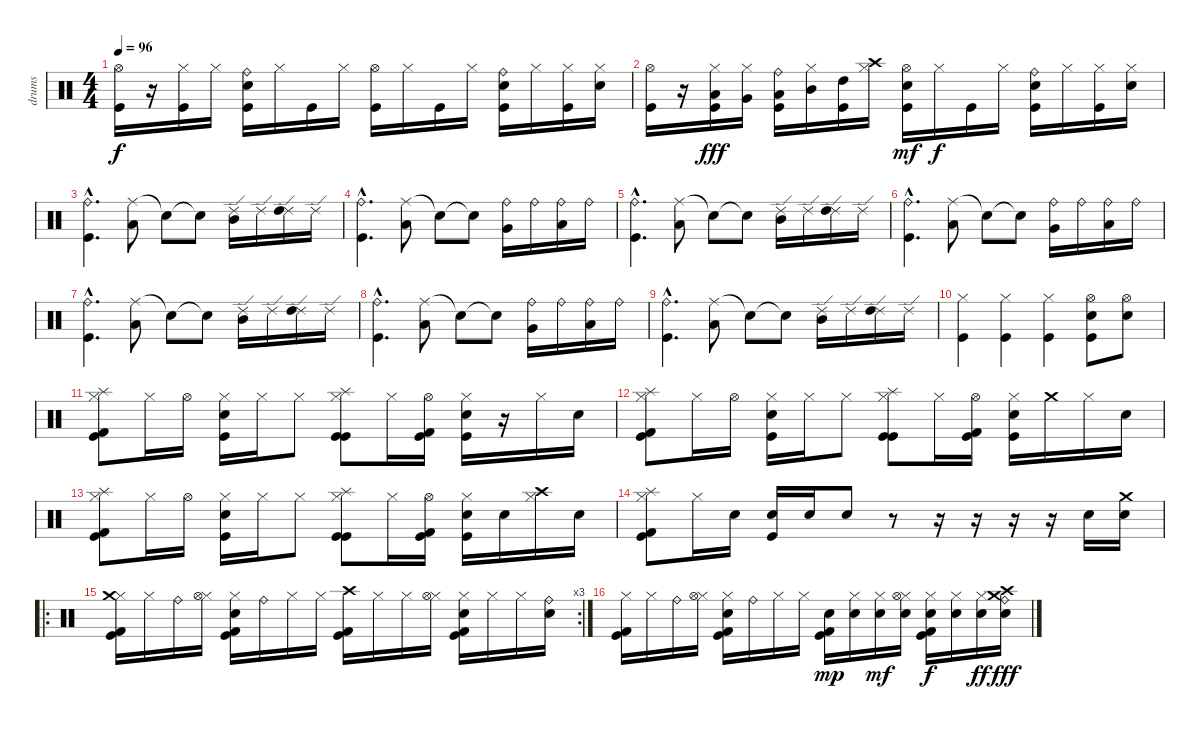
\track ("drums" "drums") {instrument percussion}
\staff {score}
\articulation defaults
\ts (4 4)
\tempo 96
\clef neutral
\ks c
("Hi-Hat (open)" "Kick (hit)").16{dy f} r.16 ("Hi-Hat (closed)" "Kick (hit)").16 "Hi-Hat (closed)".16 ("Ride (bell)" "Electric Snare (hit)" "Kick (hit)").16 "Hi-Hat (closed)".16 "Kick (hit)".16 "Hi-Hat (closed)".16 ("Hi-Hat (open)" "Kick (hit)").16 "Hi-Hat (closed)".16 "Kick (hit)".16 "Hi-Hat (closed)".16 ("Ride (bell)" "Electric Snare (hit)" "Kick (hit)").16 "Hi-Hat (closed)".16 ("Hi-Hat (closed)" "Kick (hit)").16 ("Hi-Hat (closed)" "Electric Snare (hit)").16 |
("Hi-Hat (open)" "Kick (hit)").16 r.16 ("Hi-Hat (closed)" "Low Floor Tom (hit)" "Kick (hit)").16{dy fff} ("Hi-Hat (closed)" "Very Low Tom (hit)").16 ("Ride (bell)" "Low Tom (hit)" "Kick (hit)").16 ("Hi-Hat (closed)" "Mid Tom (hit)").16 ("High Tom (hit)" "Kick (hit)").16 ("Hi-Hat (closed)" "Crash high (hit)").16 ("Hi-Hat (open)" "Electric Snare (hit)" "Kick (hit)").16{dy mf} "Hi-Hat (closed)".16{dy f} "Kick (hit)".16 "Hi-Hat (closed)".16 ("Ride (bell)" "Electric Snare (hit)" "Kick (hit)").16 "Hi-Hat (closed)".16 ("Hi-Hat (closed)" "Kick (hit)").16 ("Hi-Hat (closed)" "Electric Snare (hit)").16 |
("Ride (bell)"{hac} "Kick (hit)"{hac}).4{d} ("Ride (middle)" "Low Tom (hit)").8 "Snare (hit)"{t}.8 "Snare (hit)"{t}.8 ("Ride (edge) 2" "Mid Tom (hit)").16 "Ride (edge) 2".16 ("Ride (edge) 2" "High Tom (hit)").16 "Ride (edge) 2".16 |
("Ride (bell)"{hac} "Kick (hit)"{hac}).4{d} ("Ride (middle)" "Low Floor Tom (hit)").8 "Snare (hit)"{t}.8 "Snare (hit)"{t}.8 ("Ride (bell)" "Very Low Tom (hit)").16 "Ride (bell)".16 ("Ride (bell)" "Low Tom (hit)").16 "Ride (bell)".16 |
("Ride (bell)"{hac} "Kick (hit)"{hac}).4{d} ("Ride (middle)" "Low Tom (hit)").8 "Snare (hit)"{t}.8 "Snare (hit)"{t}.8 ("Ride (edge) 2" "Mid Tom (hit)").16 "Ride (edge) 2".16 ("Ride (edge) 2" "High Tom (hit)").16 "Ride (edge) 2".16 |
("Ride (bell)"{hac} "Kick (hit)"{hac}).4{d} ("Ride (middle)" "Low Floor Tom (hit)").8 "Snare (hit)"{t}.8 "Snare (hit)"{t}.8 ("Ride (bell)" "Very Low Tom (hit)").16 "Ride (bell)".16 ("Ride (bell)" "Low Tom (hit)").16 "Ride (bell)".16 |
("Ride (bell)"{hac} "Kick (hit)"{hac}).4{d} ("Ride (middle)" "Low Tom (hit)").8 "Snare (hit)"{t}.8 "Snare (hit)"{t}.8 ("Ride (edge) 2" "Mid Tom (hit)").16 "Ride (edge) 2".16 ("Ride (edge) 2" "High Tom (hit)").16 "Ride (edge) 2".16 |
("Ride (bell)"{hac} "Kick (hit)"{hac}).4{d} ("Ride (middle)" "Low Floor Tom (hit)").8 "Snare (hit)"{t}.8 "Snare (hit)"{t}.8 ("Ride (bell)" "Very Low Tom (hit)").16 "Ride (bell)".16 ("Ride (bell)" "Low Tom (hit)").16 "Ride (bell)".16 |
("Ride (bell)"{hac} "Kick (hit)"{hac}).4{d} ("Ride (middle)" "Low Tom (hit)").8 "Snare (hit)"{t}.8 "Snare (hit)"{t}.8 ("Ride (edge) 2" "Mid Tom (hit)").16 "Ride (edge) 2".16 ("Ride (edge) 2" "High Tom (hit)").16 "Ride (edge) 2".16 |
("Hi-Hat (closed)" "Kick (hit)").4 ("Hi-Hat (closed)" "Kick (hit)").4 ("Hi-Hat (closed)" "Kick (hit)").4 ("Hi-Hat (open)" "Electric Snare (hit)" "Kick (hit)").8 ("Hi-Hat (open)" "Electric Snare (hit)").8 |
("Hi-Hat (closed)" "Splash (hit)" "Kick (hit) 2" "Kick (hit)").8 "Hi-Hat (closed)".16 "Hi-Hat (open)".16 ("Hi-Hat (closed)" "Electric Snare (hit)" "Kick (hit)").16 "Hi-Hat (closed)".16 "Hi-Hat (closed)".8 ("Hi-Hat (closed)" "Splash (hit)" "Kick (hit)" "Kick (hit)").8 "Hi-Hat (closed)".16 ("Hi-Hat (open)" "Kick (hit)" "Kick (hit) 2").16 ("Hi-Hat (closed)" "Electric Snare (hit)" "Kick (hit)").16 r.16 "Hi-Hat (closed)".16 "Electric Snare (hit)".16 |
("Hi-Hat (closed)" "Splash (hit)" "Kick (hit) 2" "Kick (hit)").8 "Hi-Hat (closed)".16 "Hi-Hat (open)".16 ("Hi-Hat (closed)" "Electric Snare (hit)" "Kick (hit)").16 "Hi-Hat (closed)".16 "Hi-Hat (closed)".8 ("Hi-Hat (closed)" "Splash (hit)" "Kick (hit)" "Kick (hit)").8 "Hi-Hat (closed)".16 ("Hi-Hat (open)" "Kick (hit)" "Kick (hit) 2").16 ("Hi-Hat (closed)" "Electric Snare (hit)" "Kick (hit)").16 "Crash medium (hit)".16 "Hi-Hat (closed)".16 "Electric Snare (hit)".16 |
("Hi-Hat (closed)" "Splash (hit)" "Kick (hit) 2" "Kick (hit)").8 "Hi-Hat (closed)".16 "Hi-Hat (open)".16 ("Hi-Hat (closed)" "Electric Snare (hit)" "Kick (hit)").16 "Hi-Hat (closed)".16 "Hi-Hat (closed)".8 ("Hi-Hat (closed)" "Splash (hit)" "Kick (hit)" "Kick (hit)").8 "Hi-Hat (closed)".16 ("Hi-Hat (open)" "Kick (hit)" "Kick (hit) 2").16 ("Hi-Hat (closed)" "Electric Snare (hit)" "Kick (hit)").16 "Electric Snare (hit)".16 ("Hi-Hat (closed)" "Crash high (hit)").16 "Electric Snare (hit)".16 |
("Hi-Hat (closed)" "Splash (hit)" "Kick (hit) 2" "Kick (hit)").8 "Hi-Hat (closed)".16 "Electric Snare (hit)".16 ("Electric Snare (hit)" "Kick (hit)").16 "Electric Snare (hit)".16 "Electric Snare (hit)".8 r.8 r.16 r.16 r.16 r.16 "Electric Snare (hit)".16 ("Crash medium (hit)" "Electric Snare (hit)").16 |
\ro
\rc 3
("Hi-Hat (closed)" "Crash medium (hit)" "Kick (hit) 2" "Kick (hit)").16 "Hi-Hat (closed)".16 "Ride (bell)".16 ("Hi-Hat (closed)" "Hi-Hat (open)").16 ("Hi-Hat (closed)" "Electric Snare (hit)" "Kick (hit)" "Kick (hit) 2").16 "Ride (bell)".16 "Hi-Hat (closed)".16 "Hi-Hat (closed)".16 ("Crash high (hit)" "Kick (hit)" "Kick (hit) 2").16 "Hi-Hat (closed)".16 "Hi-Hat (closed)".16 ("Hi-Hat (closed)" "Hi-Hat (open)").16 ("Hi-Hat (closed)" "Electric Snare (hit)" "Kick (hit)" "Kick (hit) 2").16 "Hi-Hat (closed)".16 "Hi-Hat (closed)".16 ("Electric Snare (hit)" "Ride (bell)").16 |
("Hi-Hat (closed)" "Kick (hit) 2" "Kick (hit)").16 "Hi-Hat (closed)".16 "Ride (bell)".16 ("Hi-Hat (closed)" "Hi-Hat (open)").16 ("Hi-Hat (closed)" "Electric Snare (hit)" "Kick (hit)" "Kick (hit) 2").16 "Ride (bell)".16 "Hi-Hat (closed)".16 "Hi-Hat (closed)".16 ("Electric Snare (hit)" "Kick (hit)" "Kick (hit) 2").16{dy mp} ("Hi-Hat (closed)" "Electric Snare (hit)").16 ("Hi-Hat (closed)" "Electric Snare (hit)").16{dy mf} ("Hi-Hat (closed)" "Hi-Hat (open)" "Electric Snare (hit)").16 ("Hi-Hat (closed)" "Electric Snare (hit)" "Kick (hit)" "Kick (hit) 2").16{dy f} ("Hi-Hat (closed)" "Electric Snare (hit)").16 ("Hi-Hat (closed)" "Electric Snare (hit)").16{dy ff} ("Crash medium (hit)" "Crash high (hit)" "Electric Snare (hit)" "Ride (bell)").16{dy fff}
